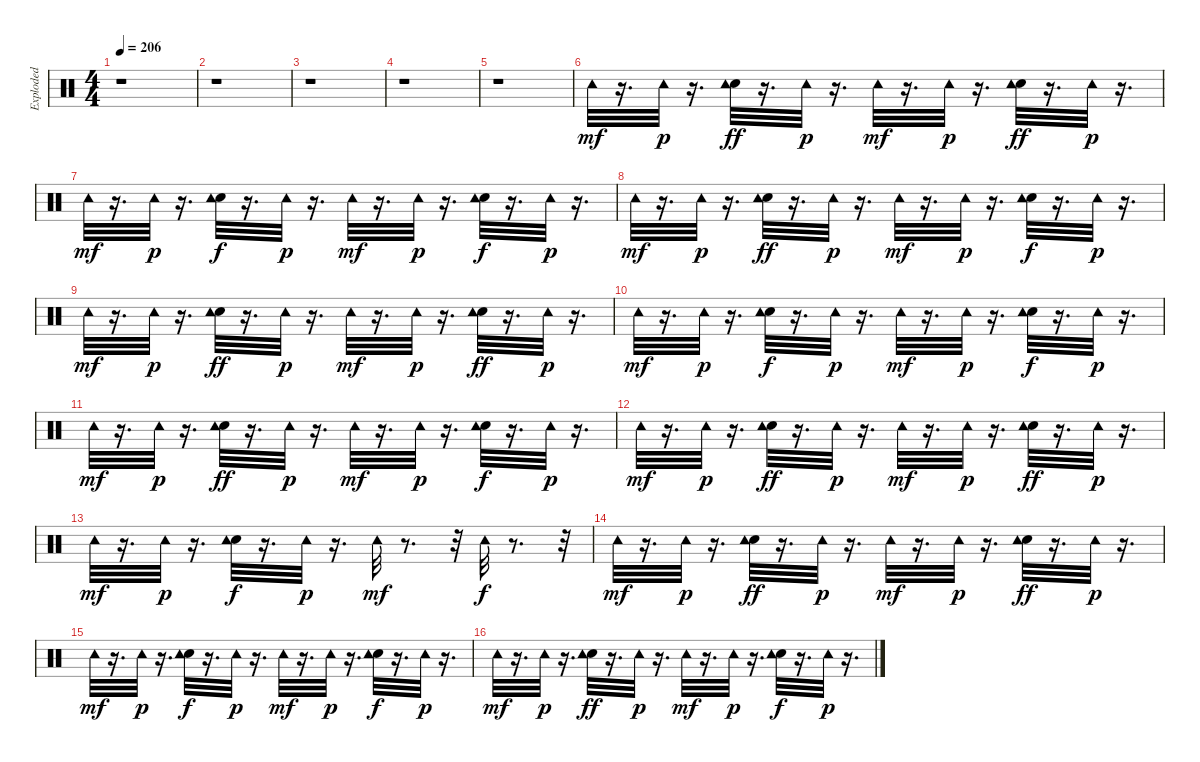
\track ("Exploded" "Exploded") {instrument percussion}
\staff {score}
\articulation defaults
\ts (4 4)
\tempo 206
\clef neutral
\ks c
r.1{dy mf} |
r.1 |
r.1 |
r.1 |
r.1 |
"Tambourine (hit)".32 r.16{d} "Tambourine (hit)".32{dy p} r.16{d} ("Hand Clap (hit)" "Tambourine (hit)").32{dy ff} r.16{d} "Tambourine (hit)".32{dy p} r.16{d} "Tambourine (hit)".32{dy mf} r.16{d} "Tambourine (hit)".32{dy p} r.16{d} ("Hand Clap (hit)" "Tambourine (hit)").32{dy ff} r.16{d} "Tambourine (hit)".32{dy p} r.16{d} |
"Tambourine (hit)".32{dy mf} r.16{d} "Tambourine (hit)".32{dy p} r.16{d} ("Hand Clap (hit)" "Tambourine (hit)").32{dy f} r.16{d} "Tambourine (hit)".32{dy p} r.16{d} "Tambourine (hit)".32{dy mf} r.16{d} "Tambourine (hit)".32{dy p} r.16{d} ("Hand Clap (hit)" "Tambourine (hit)").32{dy f} r.16{d} "Tambourine (hit)".32{dy p} r.16{d} |
"Tambourine (hit)".32{dy mf} r.16{d} "Tambourine (hit)".32{dy p} r.16{d} ("Hand Clap (hit)" "Tambourine (hit)").32{dy ff} r.16{d} "Tambourine (hit)".32{dy p} r.16{d} "Tambourine (hit)".32{dy mf} r.16{d} "Tambourine (hit)".32{dy p} r.16{d} ("Hand Clap (hit)" "Tambourine (hit)").32{dy f} r.16{d} "Tambourine (hit)".32{dy p} r.16{d} |
"Tambourine (hit)".32{dy mf} r.16{d} "Tambourine (hit)".32{dy p} r.16{d} ("Hand Clap (hit)" "Tambourine (hit)").32{dy ff} r.16{d} "Tambourine (hit)".32{dy p} r.16{d} "Tambourine (hit)".32{dy mf} r.16{d} "Tambourine (hit)".32{dy p} r.16{d} ("Hand Clap (hit)" "Tambourine (hit)").32{dy ff} r.16{d} "Tambourine (hit)".32{dy p} r.16{d} |
"Tambourine (hit)".32{dy mf} r.16{d} "Tambourine (hit)".32{dy p} r.16{d} ("Hand Clap (hit)" "Tambourine (hit)").32{dy f} r.16{d} "Tambourine (hit)".32{dy p} r.16{d} "Tambourine (hit)".32{dy mf} r.16{d} "Tambourine (hit)".32{dy p} r.16{d} ("Hand Clap (hit)" "Tambourine (hit)").32{dy f} r.16{d} "Tambourine (hit)".32{dy p} r.16{d} |
"Tambourine (hit)".32{dy mf} r.16{d} "Tambourine (hit)".32{dy p} r.16{d} ("Hand Clap (hit)" "Tambourine (hit)").32{dy ff} r.16{d} "Tambourine (hit)".32{dy p} r.16{d} "Tambourine (hit)".32{dy mf} r.16{d} "Tambourine (hit)".32{dy p} r.16{d} ("Hand Clap (hit)" "Tambourine (hit)").32{dy f} r.16{d} "Tambourine (hit)".32{dy p} r.16{d} |
"Tambourine (hit)".32{dy mf} r.16{d} "Tambourine (hit)".32{dy p} r.16{d} ("Hand Clap (hit)" "Tambourine (hit)").32{dy ff} r.16{d} "Tambourine (hit)".32{dy p} r.16{d} "Tambourine (hit)".32{dy mf} r.16{d} "Tambourine (hit)".32{dy p} r.16{d} ("Hand Clap (hit)" "Tambourine (hit)").32{dy ff} r.16{d} "Tambourine (hit)".32{dy p} r.16{d} |
"Tambourine (hit)".32{dy mf} r.16{d} "Tambourine (hit)".32{dy p} r.16{d} ("Hand Clap (hit)" "Tambourine (hit)").32{dy f} r.16{d} "Tambourine (hit)".32{dy p} r.16{d} "Tambourine (hit)".32{dy mf} r.8{d} r.32 "Tambourine (hit)".32{dy f} r.8{d} r.32 |
"Tambourine (hit)".32{dy mf} r.16{d} "Tambourine (hit)".32{dy p} r.16{d} ("Hand Clap (hit)" "Tambourine (hit)").32{dy ff} r.16{d} "Tambourine (hit)".32{dy p} r.16{d} "Tambourine (hit)".32{dy mf} r.16{d} "Tambourine (hit)".32{dy p} r.16{d} ("Hand Clap (hit)" "Tambourine (hit)").32{dy ff} r.16{d} "Tambourine (hit)".32{dy p} r.16{d} |
"Tambourine (hit)".32{dy mf} r.16{d} "Tambourine (hit)".32{dy p} r.16{d} ("Hand Clap (hit)" "Tambourine (hit)").32{dy f} r.16{d} "Tambourine (hit)".32{dy p} r.16{d} "Tambourine (hit)".32{dy mf} r.16{d} "Tambourine (hit)".32{dy p} r.16{d} ("Hand Clap (hit)" "Tambourine (hit)").32{dy f} r.16{d} "Tambourine (hit)".32{dy p} r.16{d} |
"Tambourine (hit)".32{dy mf} r.16{d} "Tambourine (hit)".32{dy p} r.16{d} ("Hand Clap (hit)" "Tambourine (hit)").32{dy ff} r.16{d} "Tambourine (hit)".32{dy p} r.16{d} "Tambourine (hit)".32{dy mf} r.16{d} "Tambourine (hit)".32{dy p} r.16{d} ("Hand Clap (hit)" "Tambourine (hit)").32{dy f} r.16{d} "Tambourine (hit)".32{dy p} r.16{d}
